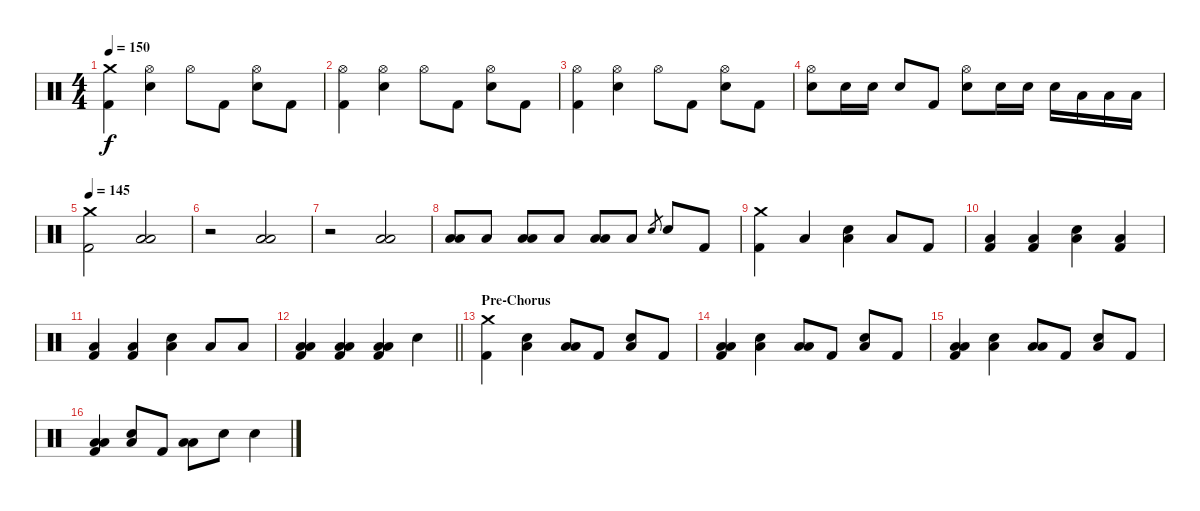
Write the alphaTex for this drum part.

\track "" {instrument percussion}
\staff {score}
\articulation defaults
\ts (4 4)
\tempo 150
\clef neutral
\ks c
("Crash medium (hit)" "Kick (hit) 2").4{dy f} ("Hi-Hat (open)" "Electric Snare (hit)").4 "Hi-Hat (open)".8 "Kick (hit) 2".8 ("Hi-Hat (open)" "Electric Snare (hit)").8 "Kick (hit) 2".8 |
("Hi-Hat (open)" "Kick (hit) 2").4 ("Hi-Hat (open)" "Electric Snare (hit)").4 "Hi-Hat (open)".8 "Kick (hit) 2".8 ("Hi-Hat (open)" "Electric Snare (hit)").8 "Kick (hit) 2".8 |
("Hi-Hat (open)" "Kick (hit) 2").4 ("Hi-Hat (open)" "Electric Snare (hit)").4 "Hi-Hat (open)".8 "Kick (hit) 2".8 ("Hi-Hat (open)" "Electric Snare (hit)").8 "Kick (hit) 2".8 |
("Hi-Hat (open)" "Electric Snare (hit)").8 "Electric Snare (hit)".16 "Electric Snare (hit)".16 "Electric Snare (hit)".8 "Kick (hit) 2".8 ("Hi-Hat (open)" "Electric Snare (hit)").8 "Electric Snare (hit)".16 "Electric Snare (hit)".16 "Electric Snare (hit)".16 "Low Tom (hit)".16 "Low Tom (hit)".16 "Low Tom (hit)".16 |
\tempo 145
("Crash medium (hit)" "Kick (hit) 2").2 ("Low Floor Tom (hit)" "Low Tom (hit)").2 |
r.2 ("Low Floor Tom (hit)" "Low Tom (hit)").2 |
r.2 ("Low Floor Tom (hit)" "Low Tom (hit)").2 |
("Low Floor Tom (hit)" "Low Tom (hit)").8 "Low Floor Tom (hit)".8 ("Low Floor Tom (hit)" "Low Tom (hit)").8 "Low Floor Tom (hit)".8 ("Low Floor Tom (hit)" "Low Tom (hit)").8 "Low Floor Tom (hit)".8 "Electric Snare (hit)".8{gr} "Electric Snare (hit)".8 "Kick (hit) 2".8 |
("Crash medium (hit)" "Kick (hit) 2").4 "Low Floor Tom (hit)".4 ("Low Floor Tom (hit)" "Electric Snare (hit)").4 "Low Floor Tom (hit)".8 "Kick (hit) 2".8 |
("Low Floor Tom (hit)" "Kick (hit) 2").4 ("Low Floor Tom (hit)" "Kick (hit) 2").4 ("Low Floor Tom (hit)" "Electric Snare (hit)").4 ("Low Floor Tom (hit)" "Kick (hit) 2").4 |
("Low Floor Tom (hit)" "Kick (hit) 2").4 ("Low Floor Tom (hit)" "Kick (hit) 2").4 ("Low Floor Tom (hit)" "Electric Snare (hit)").4 "Low Floor Tom (hit)".8 "Low Floor Tom (hit)".8 |
\barLineRight lightlight
("Low Floor Tom (hit)" "Low Tom (hit)" "Kick (hit) 2").4 ("Low Floor Tom (hit)" "Low Tom (hit)" "Kick (hit) 2").4 ("Low Floor Tom (hit)" "Low Tom (hit)" "Kick (hit) 2").4 "Electric Snare (hit)".4 |
\section ("" "Pre-Chorus")
("Crash medium (hit)" "Kick (hit) 2").4 ("Low Floor Tom (hit)" "Electric Snare (hit)").4 ("Low Floor Tom (hit)" "Low Tom (hit)").8 "Kick (hit) 2".8 ("Low Floor Tom (hit)" "Electric Snare (hit)").8 "Kick (hit) 2".8 |
("Low Floor Tom (hit)" "Low Tom (hit)" "Kick (hit) 2").4 ("Low Floor Tom (hit)" "Electric Snare (hit)").4 ("Low Floor Tom (hit)" "Low Tom (hit)").8 "Kick (hit) 2".8 ("Low Floor Tom (hit)" "Electric Snare (hit)").8 "Kick (hit) 2".8 |
("Low Floor Tom (hit)" "Low Tom (hit)" "Kick (hit) 2").4 ("Low Floor Tom (hit)" "Electric Snare (hit)").4 ("Low Floor Tom (hit)" "Low Tom (hit)").8 "Kick (hit) 2".8 ("Low Floor Tom (hit)" "Electric Snare (hit)").8 "Kick (hit) 2".8 |
("Low Floor Tom (hit)" "Low Tom (hit)" "Kick (hit) 2").4 ("Low Floor Tom (hit)" "Electric Snare (hit)").8 "Kick (hit) 2".8 ("Low Floor Tom (hit)" "Low Tom (hit)").8 "Electric Snare (hit)".8 "Electric Snare (hit)".4
